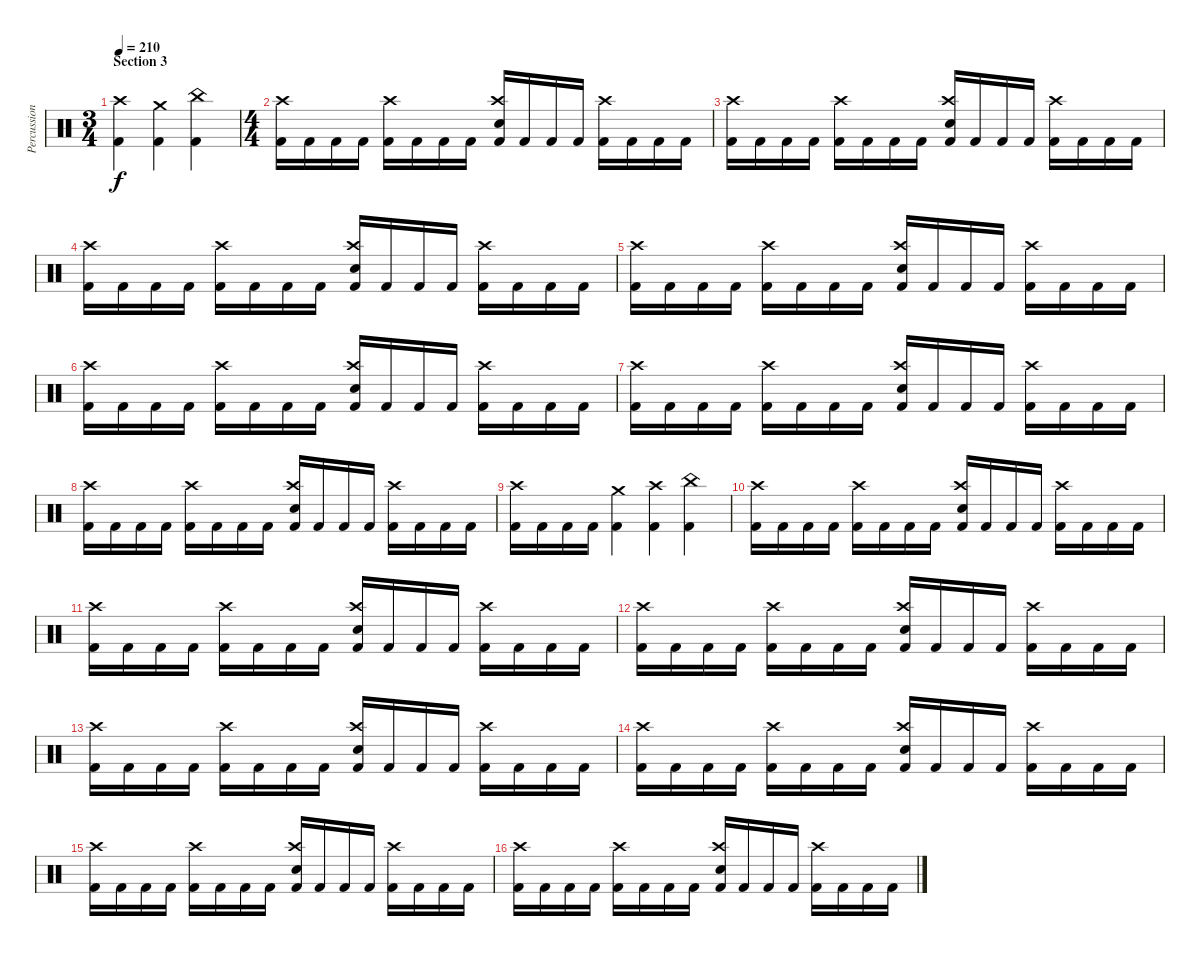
\track ("Percussions" "Percussion") {instrument percussion}
\staff {score}
\articulation defaults
\ts (3 4)
\section ("" "Section 3")
\tempo 210
\clef neutral
\ks c
("Kick (hit) 2" "Crash high (hit)").4{dy f} ("Kick (hit) 2" "Crash medium (hit)").4 ("Kick (hit) 2" "China (hit)").4 |
\ts (4 4)
("Kick (hit) 2" "Crash high (hit)").16 "Kick (hit) 2".16 "Kick (hit) 2".16 "Kick (hit) 2".16 ("Kick (hit) 2" "Crash high (hit)").16 "Kick (hit) 2".16 "Kick (hit) 2".16 "Kick (hit) 2".16 ("Kick (hit) 2" "Electric Snare (hit)" "Crash high (hit)").16 "Kick (hit) 2".16 "Kick (hit) 2".16 "Kick (hit) 2".16 ("Kick (hit) 2" "Crash high (hit)").16 "Kick (hit) 2".16 "Kick (hit) 2".16 "Kick (hit) 2".16 |
("Kick (hit) 2" "Crash high (hit)").16 "Kick (hit) 2".16 "Kick (hit) 2".16 "Kick (hit) 2".16 ("Kick (hit) 2" "Crash high (hit)").16 "Kick (hit) 2".16 "Kick (hit) 2".16 "Kick (hit) 2".16 ("Kick (hit) 2" "Electric Snare (hit)" "Crash high (hit)").16 "Kick (hit) 2".16 "Kick (hit) 2".16 "Kick (hit) 2".16 ("Kick (hit) 2" "Crash high (hit)").16 "Kick (hit) 2".16 "Kick (hit) 2".16 "Kick (hit) 2".16 |
("Kick (hit) 2" "Crash high (hit)").16 "Kick (hit) 2".16 "Kick (hit) 2".16 "Kick (hit) 2".16 ("Kick (hit) 2" "Crash high (hit)").16 "Kick (hit) 2".16 "Kick (hit) 2".16 "Kick (hit) 2".16 ("Kick (hit) 2" "Electric Snare (hit)" "Crash high (hit)").16 "Kick (hit) 2".16 "Kick (hit) 2".16 "Kick (hit) 2".16 ("Kick (hit) 2" "Crash high (hit)").16 "Kick (hit) 2".16 "Kick (hit) 2".16 "Kick (hit) 2".16 |
("Kick (hit) 2" "Crash high (hit)").16 "Kick (hit) 2".16 "Kick (hit) 2".16 "Kick (hit) 2".16 ("Kick (hit) 2" "Crash high (hit)").16 "Kick (hit) 2".16 "Kick (hit) 2".16 "Kick (hit) 2".16 ("Kick (hit) 2" "Electric Snare (hit)" "Crash high (hit)").16 "Kick (hit) 2".16 "Kick (hit) 2".16 "Kick (hit) 2".16 ("Kick (hit) 2" "Crash high (hit)").16 "Kick (hit) 2".16 "Kick (hit) 2".16 "Kick (hit) 2".16 |
("Kick (hit) 2" "Crash high (hit)").16 "Kick (hit) 2".16 "Kick (hit) 2".16 "Kick (hit) 2".16 ("Kick (hit) 2" "Crash high (hit)").16 "Kick (hit) 2".16 "Kick (hit) 2".16 "Kick (hit) 2".16 ("Kick (hit) 2" "Electric Snare (hit)" "Crash high (hit)").16 "Kick (hit) 2".16 "Kick (hit) 2".16 "Kick (hit) 2".16 ("Kick (hit) 2" "Crash high (hit)").16 "Kick (hit) 2".16 "Kick (hit) 2".16 "Kick (hit) 2".16 |
("Kick (hit) 2" "Crash high (hit)").16 "Kick (hit) 2".16 "Kick (hit) 2".16 "Kick (hit) 2".16 ("Kick (hit) 2" "Crash high (hit)").16 "Kick (hit) 2".16 "Kick (hit) 2".16 "Kick (hit) 2".16 ("Kick (hit) 2" "Electric Snare (hit)" "Crash high (hit)").16 "Kick (hit) 2".16 "Kick (hit) 2".16 "Kick (hit) 2".16 ("Kick (hit) 2" "Crash high (hit)").16 "Kick (hit) 2".16 "Kick (hit) 2".16 "Kick (hit) 2".16 |
("Kick (hit) 2" "Crash high (hit)").16 "Kick (hit) 2".16 "Kick (hit) 2".16 "Kick (hit) 2".16 ("Kick (hit) 2" "Crash high (hit)").16 "Kick (hit) 2".16 "Kick (hit) 2".16 "Kick (hit) 2".16 ("Kick (hit) 2" "Electric Snare (hit)" "Crash high (hit)").16 "Kick (hit) 2".16 "Kick (hit) 2".16 "Kick (hit) 2".16 ("Kick (hit) 2" "Crash high (hit)").16 "Kick (hit) 2".16 "Kick (hit) 2".16 "Kick (hit) 2".16 |
("Kick (hit) 2" "Crash high (hit)").16 "Kick (hit) 2".16 "Kick (hit) 2".16 "Kick (hit) 2".16 ("Kick (hit) 2" "Crash medium (hit)").4 ("Kick (hit) 2" "Crash high (hit)").4 ("Kick (hit) 2" "China (hit)").4 |
("Kick (hit) 2" "Crash high (hit)").16 "Kick (hit) 2".16 "Kick (hit) 2".16 "Kick (hit) 2".16 ("Kick (hit) 2" "Crash high (hit)").16 "Kick (hit) 2".16 "Kick (hit) 2".16 "Kick (hit) 2".16 ("Kick (hit) 2" "Electric Snare (hit)" "Crash high (hit)").16 "Kick (hit) 2".16 "Kick (hit) 2".16 "Kick (hit) 2".16 ("Kick (hit) 2" "Crash high (hit)").16 "Kick (hit) 2".16 "Kick (hit) 2".16 "Kick (hit) 2".16 |
("Kick (hit) 2" "Crash high (hit)").16 "Kick (hit) 2".16 "Kick (hit) 2".16 "Kick (hit) 2".16 ("Kick (hit) 2" "Crash high (hit)").16 "Kick (hit) 2".16 "Kick (hit) 2".16 "Kick (hit) 2".16 ("Kick (hit) 2" "Electric Snare (hit)" "Crash high (hit)").16 "Kick (hit) 2".16 "Kick (hit) 2".16 "Kick (hit) 2".16 ("Kick (hit) 2" "Crash high (hit)").16 "Kick (hit) 2".16 "Kick (hit) 2".16 "Kick (hit) 2".16 |
("Kick (hit) 2" "Crash high (hit)").16 "Kick (hit) 2".16 "Kick (hit) 2".16 "Kick (hit) 2".16 ("Kick (hit) 2" "Crash high (hit)").16 "Kick (hit) 2".16 "Kick (hit) 2".16 "Kick (hit) 2".16 ("Kick (hit) 2" "Electric Snare (hit)" "Crash high (hit)").16 "Kick (hit) 2".16 "Kick (hit) 2".16 "Kick (hit) 2".16 ("Kick (hit) 2" "Crash high (hit)").16 "Kick (hit) 2".16 "Kick (hit) 2".16 "Kick (hit) 2".16 |
("Kick (hit) 2" "Crash high (hit)").16 "Kick (hit) 2".16 "Kick (hit) 2".16 "Kick (hit) 2".16 ("Kick (hit) 2" "Crash high (hit)").16 "Kick (hit) 2".16 "Kick (hit) 2".16 "Kick (hit) 2".16 ("Kick (hit) 2" "Electric Snare (hit)" "Crash high (hit)").16 "Kick (hit) 2".16 "Kick (hit) 2".16 "Kick (hit) 2".16 ("Kick (hit) 2" "Crash high (hit)").16 "Kick (hit) 2".16 "Kick (hit) 2".16 "Kick (hit) 2".16 |
("Kick (hit) 2" "Crash high (hit)").16 "Kick (hit) 2".16 "Kick (hit) 2".16 "Kick (hit) 2".16 ("Kick (hit) 2" "Crash high (hit)").16 "Kick (hit) 2".16 "Kick (hit) 2".16 "Kick (hit) 2".16 ("Kick (hit) 2" "Electric Snare (hit)" "Crash high (hit)").16 "Kick (hit) 2".16 "Kick (hit) 2".16 "Kick (hit) 2".16 ("Kick (hit) 2" "Crash high (hit)").16 "Kick (hit) 2".16 "Kick (hit) 2".16 "Kick (hit) 2".16 |
("Kick (hit) 2" "Crash high (hit)").16 "Kick (hit) 2".16 "Kick (hit) 2".16 "Kick (hit) 2".16 ("Kick (hit) 2" "Crash high (hit)").16 "Kick (hit) 2".16 "Kick (hit) 2".16 "Kick (hit) 2".16 ("Kick (hit) 2" "Electric Snare (hit)" "Crash high (hit)").16 "Kick (hit) 2".16 "Kick (hit) 2".16 "Kick (hit) 2".16 ("Kick (hit) 2" "Crash high (hit)").16 "Kick (hit) 2".16 "Kick (hit) 2".16 "Kick (hit) 2".16 |
("Kick (hit) 2" "Crash high (hit)").16 "Kick (hit) 2".16 "Kick (hit) 2".16 "Kick (hit) 2".16 ("Kick (hit) 2" "Crash high (hit)").16 "Kick (hit) 2".16 "Kick (hit) 2".16 "Kick (hit) 2".16 ("Kick (hit) 2" "Electric Snare (hit)" "Crash high (hit)").16 "Kick (hit) 2".16 "Kick (hit) 2".16 "Kick (hit) 2".16 ("Kick (hit) 2" "Crash high (hit)").16 "Kick (hit) 2".16 "Kick (hit) 2".16 "Kick (hit) 2".16
